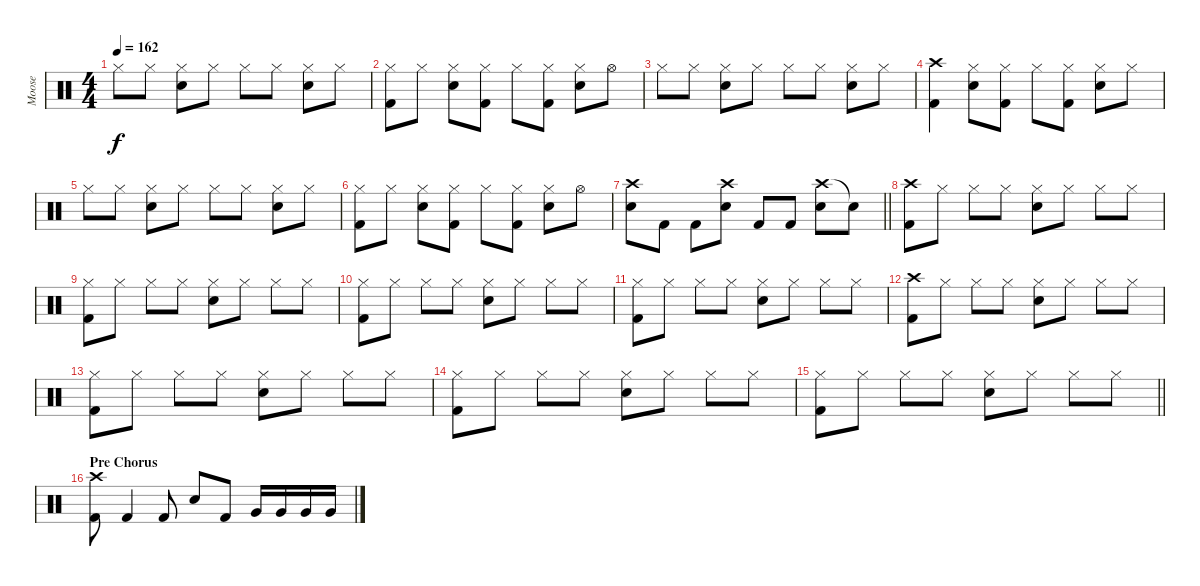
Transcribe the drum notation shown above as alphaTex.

\track ("Moose" "Moose") {instrument percussion}
\staff {score}
\articulation defaults
\ts (4 4)
\tempo 162
\clef neutral
\ks c "Hi-Hat (closed)".8{dy f} "Hi-Hat (closed)".8
("Hi-Hat (closed)" "Snare (hit) 2").8 "Hi-Hat (closed)".8 "Hi-Hat (closed)".8 "Hi-Hat (closed)".8 ("Hi-Hat (closed)" "Snare (hit) 2").8 "Hi-Hat (closed)".8 |
("Hi-Hat (closed)" "Kick (hit) 2").8 "Hi-Hat (closed)".8 ("Hi-Hat (closed)" "Snare (hit) 2").8 ("Hi-Hat (closed)" "Kick (hit) 2").8 "Hi-Hat (closed)".8 ("Hi-Hat (closed)" "Kick (hit) 2").8 ("Hi-Hat (closed)" "Snare (hit) 2").8 "Hi-Hat (open)".8 |
"Hi-Hat (closed)".8 "Hi-Hat (closed)".8 ("Hi-Hat (closed)" "Snare (hit) 2").8 "Hi-Hat (closed)".8 "Hi-Hat (closed)".8 "Hi-Hat (closed)".8 ("Hi-Hat (closed)" "Snare (hit) 2").8 "Hi-Hat (closed)".8 |
("Crash high (hit)" "Kick (hit) 2").4 ("Hi-Hat (closed)" "Snare (hit) 2").8 ("Hi-Hat (closed)" "Kick (hit) 2").8 "Hi-Hat (closed)".8 ("Hi-Hat (closed)" "Kick (hit) 2").8 ("Hi-Hat (closed)" "Snare (hit) 2").8 "Hi-Hat (closed)".8 |
"Hi-Hat (closed)".8 "Hi-Hat (closed)".8 ("Hi-Hat (closed)" "Snare (hit) 2").8 "Hi-Hat (closed)".8 "Hi-Hat (closed)".8 "Hi-Hat (closed)".8 ("Hi-Hat (closed)" "Snare (hit) 2").8 "Hi-Hat (closed)".8 |
("Hi-Hat (closed)" "Kick (hit) 2").8 "Hi-Hat (closed)".8 ("Hi-Hat (closed)" "Snare (hit) 2").8 ("Hi-Hat (closed)" "Kick (hit) 2").8 "Hi-Hat (closed)".8 ("Hi-Hat (closed)" "Kick (hit) 2").8 ("Hi-Hat (closed)" "Snare (hit) 2").8 "Hi-Hat (open)".8 |
\barLineRight lightlight
("Crash high (hit)" "Snare (hit) 2").8 "Kick (hit) 2".8 "Kick (hit) 2".8 ("Crash high (hit)" "Snare (hit) 2").8 "Kick (hit) 2".8 "Kick (hit) 2".8 ("Crash high (hit)" "Snare (hit) 2").8 "Snare (hit)"{t}.8 |
("Crash high (hit)" "Kick (hit) 2").8 "Hi-Hat (closed)".8 "Hi-Hat (closed)".8 "Hi-Hat (closed)".8 ("Hi-Hat (closed)" "Snare (hit) 2").8 "Hi-Hat (closed)".8 "Hi-Hat (closed)".8 "Hi-Hat (closed)".8 |
("Hi-Hat (closed)" "Kick (hit) 2").8 "Hi-Hat (closed)".8 "Hi-Hat (closed)".8 "Hi-Hat (closed)".8 ("Hi-Hat (closed)" "Snare (hit) 2").8 "Hi-Hat (closed)".8 "Hi-Hat (closed)".8 "Hi-Hat (closed)".8 |
("Hi-Hat (closed)" "Kick (hit) 2").8 "Hi-Hat (closed)".8 "Hi-Hat (closed)".8 "Hi-Hat (closed)".8 ("Hi-Hat (closed)" "Snare (hit) 2").8 "Hi-Hat (closed)".8 "Hi-Hat (closed)".8 "Hi-Hat (closed)".8 |
("Hi-Hat (closed)" "Kick (hit) 2").8 "Hi-Hat (closed)".8 "Hi-Hat (closed)".8 "Hi-Hat (closed)".8 ("Hi-Hat (closed)" "Snare (hit) 2").8 "Hi-Hat (closed)".8 "Hi-Hat (closed)".8 "Hi-Hat (closed)".8 |
("Crash high (hit)" "Kick (hit) 2").8 "Hi-Hat (closed)".8 "Hi-Hat (closed)".8 "Hi-Hat (closed)".8 ("Hi-Hat (closed)" "Snare (hit) 2").8 "Hi-Hat (closed)".8 "Hi-Hat (closed)".8 "Hi-Hat (closed)".8 |
("Hi-Hat (closed)" "Kick (hit) 2").8 "Hi-Hat (closed)".8 "Hi-Hat (closed)".8 "Hi-Hat (closed)".8 ("Hi-Hat (closed)" "Snare (hit) 2").8 "Hi-Hat (closed)".8 "Hi-Hat (closed)".8 "Hi-Hat (closed)".8 |
("Hi-Hat (closed)" "Kick (hit) 2").8 "Hi-Hat (closed)".8 "Hi-Hat (closed)".8 "Hi-Hat (closed)".8 ("Hi-Hat (closed)" "Snare (hit) 2").8 "Hi-Hat (closed)".8 "Hi-Hat (closed)".8 "Hi-Hat (closed)".8 |
\barLineRight lightlight
("Hi-Hat (closed)" "Kick (hit) 2").8 "Hi-Hat (closed)".8 "Hi-Hat (closed)".8 "Hi-Hat (closed)".8 ("Hi-Hat (closed)" "Snare (hit) 2").8 "Hi-Hat (closed)".8 "Hi-Hat (closed)".8 "Hi-Hat (closed)".8 |
\section ("" "Pre Chorus")
("Crash high (hit)" "Kick (hit) 2").8 "Kick (hit) 2".4 "Kick (hit) 2".8 "Snare (hit) 2".8 "Kick (hit) 2".8 "Very Low Tom (hit)".16 "Very Low Tom (hit)".16 "Very Low Tom (hit)".16 "Very Low Tom (hit)".16
